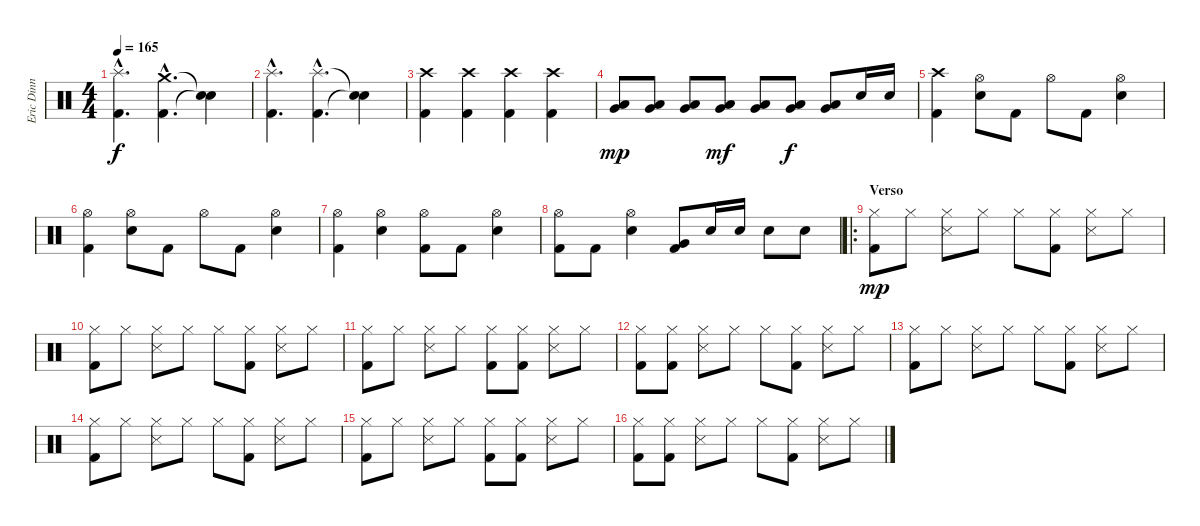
\track ("Eric Dinn" "Eric Dinn") {instrument percussion}
\staff {score}
\articulation defaults
\ts (4 4)
\tempo 165
\clef neutral
\ks c
("Splash (hit)"{hac} "Kick (hit) 2"{hac}).4{d dy f} ("Crash medium (hit)"{hac} "Kick (hit) 2"{hac}).4{d} ("Snare (hit)"{t} "Snare (hit)"{t}).4 |
("Splash (hit)"{hac} "Kick (hit) 2"{hac}).4{d} ("Splash (hit)"{hac} "Kick (hit) 2"{hac}).4{d} ("Snare (hit)"{t} "Snare (hit)"{t}).4 |
("Crash high (hit)" "Kick (hit) 2").4 ("Crash high (hit)" "Kick (hit) 2").4 ("Crash high (hit)" "Kick (hit) 2").4 ("Crash high (hit)" "Kick (hit) 2").4 |
("Low Tom (hit)" "Very Low Tom (hit)").8{dy mp} ("Low Tom (hit)" "Very Low Tom (hit)").8 ("Low Tom (hit)" "Very Low Tom (hit)").8 ("Low Tom (hit)" "Very Low Tom (hit)").8{dy mf} ("Low Tom (hit)" "Very Low Tom (hit)").8 ("Low Tom (hit)" "Very Low Tom (hit)").8{dy f} ("Low Tom (hit)" "Very Low Tom (hit)").8 "Snare (hit) 2".16 "Snare (hit) 2".16 |
("Crash high (hit)" "Kick (hit) 2").4 ("Hi-Hat (open)" "Snare (hit) 2").8 "Kick (hit) 2".8 "Hi-Hat (open)".8 "Kick (hit) 2".8 ("Hi-Hat (open)" "Snare (hit) 2").4 |
("Hi-Hat (open)" "Kick (hit) 2").4 ("Hi-Hat (open)" "Snare (hit) 2").8 "Kick (hit) 2".8 "Hi-Hat (open)".8 "Kick (hit) 2".8 ("Hi-Hat (open)" "Snare (hit) 2").4 |
("Hi-Hat (open)" "Kick (hit) 2").4 ("Hi-Hat (open)" "Snare (hit) 2").4 ("Hi-Hat (open)" "Kick (hit) 2").8 "Kick (hit) 2".8 ("Hi-Hat (open)" "Snare (hit) 2").4 |
("Hi-Hat (open)" "Kick (hit) 2").8 "Kick (hit) 2".8 ("Hi-Hat (open)" "Snare (hit) 2").4 ("Very Low Tom (hit)" "Kick (hit) 2").8 "Snare (hit) 2".16 "Snare (hit) 2".16 "Snare (hit) 2".8 "Snare (hit) 2".8 |
\ro
\section ("" "Verso")
("Hi-Hat (closed)" "Kick (hit) 2").8{dy mp} "Hi-Hat (closed)".8 ("Hi-Hat (closed)" "Snare (side stick) 3").8 "Hi-Hat (closed)".8 "Hi-Hat (closed)".8 ("Hi-Hat (closed)" "Kick (hit) 2").8 ("Hi-Hat (closed)" "Snare (side stick) 3").8 "Hi-Hat (closed)".8 |
("Hi-Hat (closed)" "Kick (hit) 2").8 "Hi-Hat (closed)".8 ("Hi-Hat (closed)" "Snare (side stick) 3").8 "Hi-Hat (closed)".8 "Hi-Hat (closed)".8 ("Hi-Hat (closed)" "Kick (hit) 2").8 ("Hi-Hat (closed)" "Snare (side stick) 3").8 "Hi-Hat (closed)".8 |
("Hi-Hat (closed)" "Kick (hit) 2").8 "Hi-Hat (closed)".8 ("Hi-Hat (closed)" "Snare (side stick) 3").8 "Hi-Hat (closed)".8 ("Hi-Hat (closed)" "Kick (hit) 2").8 ("Hi-Hat (closed)" "Kick (hit) 2").8 ("Hi-Hat (closed)" "Snare (side stick) 3").8 "Hi-Hat (closed)".8 |
("Hi-Hat (closed)" "Kick (hit) 2").8 ("Hi-Hat (closed)" "Kick (hit) 2").8 ("Hi-Hat (closed)" "Snare (side stick) 3").8 "Hi-Hat (closed)".8 "Hi-Hat (closed)".8 ("Hi-Hat (closed)" "Kick (hit) 2").8 ("Hi-Hat (closed)" "Snare (side stick) 3").8 "Hi-Hat (closed)".8 |
("Hi-Hat (closed)" "Kick (hit) 2").8 "Hi-Hat (closed)".8 ("Hi-Hat (closed)" "Snare (side stick) 3").8 "Hi-Hat (closed)".8 "Hi-Hat (closed)".8 ("Hi-Hat (closed)" "Kick (hit) 2").8 ("Hi-Hat (closed)" "Snare (side stick) 3").8 "Hi-Hat (closed)".8 |
("Hi-Hat (closed)" "Kick (hit) 2").8 "Hi-Hat (closed)".8 ("Hi-Hat (closed)" "Snare (side stick) 3").8 "Hi-Hat (closed)".8 "Hi-Hat (closed)".8 ("Hi-Hat (closed)" "Kick (hit) 2").8 ("Hi-Hat (closed)" "Snare (side stick) 3").8 "Hi-Hat (closed)".8 |
("Hi-Hat (closed)" "Kick (hit) 2").8 "Hi-Hat (closed)".8 ("Hi-Hat (closed)" "Snare (side stick) 3").8 "Hi-Hat (closed)".8 ("Hi-Hat (closed)" "Kick (hit) 2").8 ("Hi-Hat (closed)" "Kick (hit) 2").8 ("Hi-Hat (closed)" "Snare (side stick) 3").8 "Hi-Hat (closed)".8 |
("Hi-Hat (closed)" "Kick (hit) 2").8 ("Hi-Hat (closed)" "Kick (hit) 2").8 ("Hi-Hat (closed)" "Snare (side stick) 3").8 "Hi-Hat (closed)".8 "Hi-Hat (closed)".8 ("Hi-Hat (closed)" "Kick (hit) 2").8 ("Hi-Hat (closed)" "Snare (side stick) 3").8 "Hi-Hat (closed)".8
